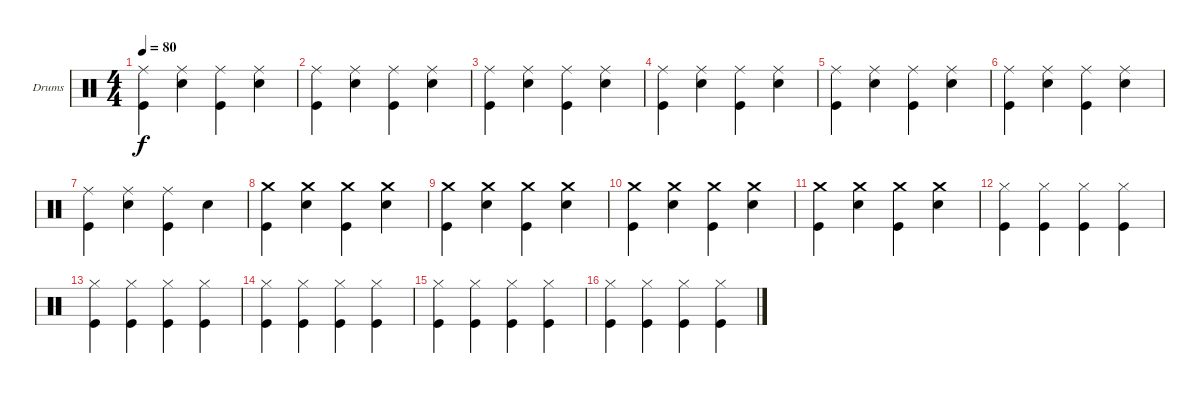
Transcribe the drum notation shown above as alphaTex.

\bracketExtendMode groupsimilarinstruments
\firstSystemTrackNameOrientation horizontal
\otherSystemsTrackNameOrientation horizontal
\track ("Drumkit" "Drums") {instrument percussion}
\staff {score}
\articulation defaults
\ts (4 4)
\tempo 80
\clef neutral
\ks c
("Ride (middle)" "Kick (hit)").4{dy f} ("Ride (middle)" "Snare (hit) 2").4 ("Ride (middle)" "Kick (hit)").4 ("Ride (middle)" "Snare (hit) 2").4 |
("Ride (middle)" "Kick (hit)").4 ("Ride (middle)" "Snare (hit) 2").4 ("Ride (middle)" "Kick (hit)").4 ("Ride (middle)" "Snare (hit) 2").4 |
("Ride (middle)" "Kick (hit)").4 ("Ride (middle)" "Snare (hit) 2").4 ("Ride (middle)" "Kick (hit)").4 ("Ride (middle)" "Snare (hit) 2").4 |
("Ride (middle)" "Kick (hit)").4 ("Ride (middle)" "Snare (hit) 2").4 ("Ride (middle)" "Kick (hit)").4 ("Ride (middle)" "Snare (hit) 2").4 |
("Ride (middle)" "Kick (hit)").4 ("Ride (middle)" "Snare (hit) 2").4 ("Ride (middle)" "Kick (hit)").4 ("Ride (middle)" "Snare (hit) 2").4 |
("Ride (middle)" "Kick (hit)").4 ("Ride (middle)" "Snare (hit) 2").4 ("Ride (middle)" "Kick (hit)").4 ("Ride (middle)" "Snare (hit) 2").4 |
("Ride (middle)" "Kick (hit)").4 ("Ride (middle)" "Snare (hit) 2").4 ("Ride (middle)" "Kick (hit)").4 "Snare (hit) 2".4 |
("Crash medium (hit)" "Kick (hit)").4 ("Crash medium (hit)" "Snare (hit) 2").4 ("Crash medium (hit)" "Kick (hit)").4 ("Crash medium (hit)" "Snare (hit) 2").4 |
("Crash medium (hit)" "Kick (hit)").4 ("Crash medium (hit)" "Snare (hit) 2").4 ("Crash medium (hit)" "Kick (hit)").4 ("Crash medium (hit)" "Snare (hit) 2").4 |
("Crash medium (hit)" "Kick (hit)").4 ("Crash medium (hit)" "Snare (hit) 2").4 ("Crash medium (hit)" "Kick (hit)").4 ("Crash medium (hit)" "Snare (hit) 2").4 |
("Crash medium (hit)" "Kick (hit)").4 ("Crash medium (hit)" "Snare (hit) 2").4 ("Crash medium (hit)" "Kick (hit)").4 ("Crash medium (hit)" "Snare (hit) 2").4 |
("Hi-Hat (closed)" "Kick (hit)").4 ("Hi-Hat (closed)" "Kick (hit)").4 ("Hi-Hat (closed)" "Kick (hit)").4 ("Hi-Hat (closed)" "Kick (hit)").4 |
("Hi-Hat (closed)" "Kick (hit)").4 ("Hi-Hat (closed)" "Kick (hit)").4 ("Hi-Hat (closed)" "Kick (hit)").4 ("Hi-Hat (closed)" "Kick (hit)").4 |
("Hi-Hat (closed)" "Kick (hit)").4 ("Hi-Hat (closed)" "Kick (hit)").4 ("Hi-Hat (closed)" "Kick (hit)").4 ("Hi-Hat (closed)" "Kick (hit)").4 |
("Hi-Hat (closed)" "Kick (hit)").4 ("Hi-Hat (closed)" "Kick (hit)").4 ("Hi-Hat (closed)" "Kick (hit)").4 ("Hi-Hat (closed)" "Kick (hit)").4 |
("Hi-Hat (closed)" "Kick (hit)").4 ("Hi-Hat (closed)" "Kick (hit)").4 ("Hi-Hat (closed)" "Kick (hit)").4 ("Hi-Hat (closed)" "Kick (hit)").4
